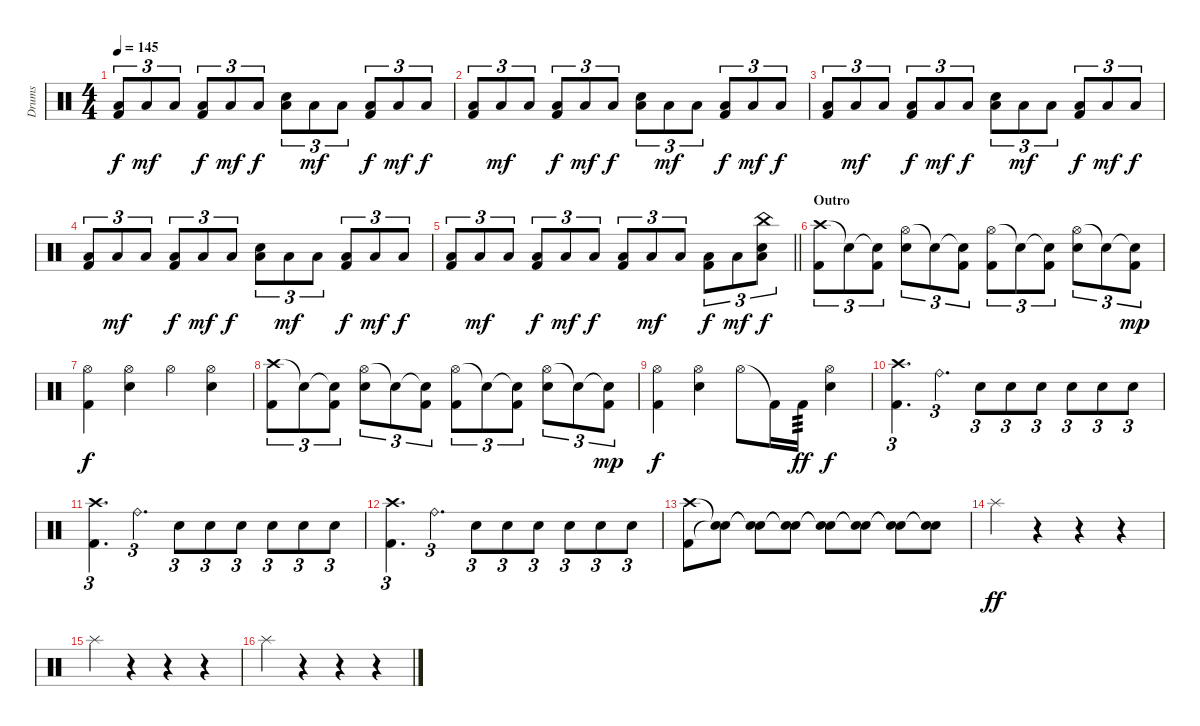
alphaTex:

\track ("Drums" "Drums") {instrument percussion}
\staff {score}
\articulation defaults
\ts (4 4)
\tempo 145
\clef neutral
\ks c
("Kick (hit) 2" "Low Floor Tom (hit)").8{tu (3 2) dy f} "Low Floor Tom (hit)".8{tu (3 2) dy mf} "Low Floor Tom (hit)".8{tu (3 2)} ("Kick (hit) 2" "Low Floor Tom (hit)").8{tu (3 2) dy f} "Low Floor Tom (hit)".8{tu (3 2) dy mf} "Low Floor Tom (hit)".8{tu (3 2) dy f} ("Snare (hit) 2" "Low Floor Tom (hit)").8{tu (3 2)} "Low Floor Tom (hit)".8{tu (3 2) dy mf} "Low Floor Tom (hit)".8{tu (3 2)} ("Kick (hit) 2" "Low Floor Tom (hit)").8{tu (3 2) dy f} "Low Floor Tom (hit)".8{tu (3 2) dy mf} "Low Floor Tom (hit)".8{tu (3 2) dy f} |
("Kick (hit) 2" "Low Floor Tom (hit)").8{tu (3 2)} "Low Floor Tom (hit)".8{tu (3 2) dy mf} "Low Floor Tom (hit)".8{tu (3 2)} ("Kick (hit) 2" "Low Floor Tom (hit)").8{tu (3 2) dy f} "Low Floor Tom (hit)".8{tu (3 2) dy mf} "Low Floor Tom (hit)".8{tu (3 2) dy f} ("Snare (hit) 2" "Low Floor Tom (hit)").8{tu (3 2)} "Low Floor Tom (hit)".8{tu (3 2) dy mf} "Low Floor Tom (hit)".8{tu (3 2)} ("Kick (hit) 2" "Low Floor Tom (hit)").8{tu (3 2) dy f} "Low Floor Tom (hit)".8{tu (3 2) dy mf} "Low Floor Tom (hit)".8{tu (3 2) dy f} |
("Kick (hit) 2" "Low Floor Tom (hit)").8{tu (3 2)} "Low Floor Tom (hit)".8{tu (3 2) dy mf} "Low Floor Tom (hit)".8{tu (3 2)} ("Kick (hit) 2" "Low Floor Tom (hit)").8{tu (3 2) dy f} "Low Floor Tom (hit)".8{tu (3 2) dy mf} "Low Floor Tom (hit)".8{tu (3 2) dy f} ("Snare (hit) 2" "Low Floor Tom (hit)").8{tu (3 2)} "Low Floor Tom (hit)".8{tu (3 2) dy mf} "Low Floor Tom (hit)".8{tu (3 2)} ("Kick (hit) 2" "Low Floor Tom (hit)").8{tu (3 2) dy f} "Low Floor Tom (hit)".8{tu (3 2) dy mf} "Low Floor Tom (hit)".8{tu (3 2) dy f} |
("Kick (hit) 2" "Low Floor Tom (hit)").8{tu (3 2)} "Low Floor Tom (hit)".8{tu (3 2) dy mf} "Low Floor Tom (hit)".8{tu (3 2)} ("Kick (hit) 2" "Low Floor Tom (hit)").8{tu (3 2) dy f} "Low Floor Tom (hit)".8{tu (3 2) dy mf} "Low Floor Tom (hit)".8{tu (3 2) dy f} ("Snare (hit) 2" "Low Floor Tom (hit)").8{tu (3 2)} "Low Floor Tom (hit)".8{tu (3 2) dy mf} "Low Floor Tom (hit)".8{tu (3 2)} ("Kick (hit) 2" "Low Floor Tom (hit)").8{tu (3 2) dy f} "Low Floor Tom (hit)".8{tu (3 2) dy mf} "Low Floor Tom (hit)".8{tu (3 2) dy f} |
\barLineRight lightlight
("Kick (hit) 2" "Low Floor Tom (hit)").8{tu (3 2)} "Low Floor Tom (hit)".8{tu (3 2) dy mf} "Low Floor Tom (hit)".8{tu (3 2)} ("Kick (hit) 2" "Low Floor Tom (hit)").8{tu (3 2) dy f} "Low Floor Tom (hit)".8{tu (3 2) dy mf} "Low Floor Tom (hit)".8{tu (3 2) dy f} ("Kick (hit) 2" "Low Floor Tom (hit)").8{tu (3 2)} "Low Floor Tom (hit)".8{tu (3 2) dy mf} "Low Floor Tom (hit)".8{tu (3 2)} ("Kick (hit) 2" "Low Floor Tom (hit)").8{tu (3 2) dy f} "Low Floor Tom (hit)".8{tu (3 2) dy mf} ("Electric Snare (hit)" "Low Floor Tom (hit)" "China (hit)").8{tu (3 2) dy f} |
\section ("" "Outro")
("Crash high (hit)" "Kick (hit) 2").8{tu (3 2)} "Snare (hit)"{t}.8{tu (3 2)} ("Snare (hit)"{t} "Kick (hit) 2").8{tu (3 2)} ("Hi-Hat (open)" "Snare (hit) 2").8{tu (3 2)} "Snare (hit)"{t}.8{tu (3 2)} ("Snare (hit)"{t} "Kick (hit) 2").8{tu (3 2)} ("Hi-Hat (open)" "Kick (hit) 2").8{tu (3 2)} "Snare (hit)"{t}.8{tu (3 2)} ("Snare (hit)"{t} "Kick (hit) 2").8{tu (3 2)} ("Hi-Hat (open)" "Snare (hit) 2").8{tu (3 2)} "Snare (hit)"{t}.8{tu (3 2)} ("Snare (hit)"{t} "Kick (hit) 2").8{tu (3 2) dy mp} |
("Hi-Hat (open)" "Kick (hit) 2").4{dy f} ("Hi-Hat (open)" "Snare (hit) 2").4 "Hi-Hat (open)".4 ("Hi-Hat (open)" "Snare (hit) 2").4 |
("Crash high (hit)" "Kick (hit) 2").8{tu (3 2)} "Snare (hit)"{t}.8{tu (3 2)} ("Snare (hit)"{t} "Kick (hit) 2").8{tu (3 2)} ("Hi-Hat (open)" "Snare (hit) 2").8{tu (3 2)} "Snare (hit)"{t}.8{tu (3 2)} ("Snare (hit)"{t} "Kick (hit) 2").8{tu (3 2)} ("Hi-Hat (open)" "Kick (hit) 2").8{tu (3 2)} "Snare (hit)"{t}.8{tu (3 2)} ("Snare (hit)"{t} "Kick (hit) 2").8{tu (3 2)} ("Hi-Hat (open)" "Snare (hit) 2").8{tu (3 2)} "Snare (hit)"{t}.8{tu (3 2)} ("Snare (hit)"{t} "Kick (hit) 2").8{tu (3 2) dy mp} |
("Hi-Hat (open)" "Kick (hit) 2").4{dy f} ("Hi-Hat (open)" "Snare (hit) 2").4 "Hi-Hat (open)".8 "Kick (hit) 2"{t}.16 "Kick (hit) 2".16{tp 3 dy ff} ("Hi-Hat (open)" "Snare (hit) 2").4{dy f} |
("Crash high (hit)" "Kick (hit) 2").4{d tu (3 2)} "Ride (bell)".4{d tu (3 2)} "Electric Snare (hit)".8{tu (3 2)} "Electric Snare (hit)".8{tu (3 2)} "Electric Snare (hit)".8{tu (3 2)} "Electric Snare (hit)".8{tu (3 2)} "Electric Snare (hit)".8{tu (3 2)} "Electric Snare (hit)".8{tu (3 2)} |
("Crash high (hit)" "Kick (hit) 2").4{d tu (3 2)} "Ride (bell)".4{d tu (3 2)} "Electric Snare (hit)".8{tu (3 2)} "Electric Snare (hit)".8{tu (3 2)} "Electric Snare (hit)".8{tu (3 2)} "Electric Snare (hit)".8{tu (3 2)} "Electric Snare (hit)".8{tu (3 2)} "Electric Snare (hit)".8{tu (3 2)} |
("Crash high (hit)" "Kick (hit) 2").4{d tu (3 2)} "Ride (bell)".4{d tu (3 2)} "Electric Snare (hit)".8{tu (3 2)} "Electric Snare (hit)".8{tu (3 2)} "Electric Snare (hit)".8{tu (3 2)} "Electric Snare (hit)".8{tu (3 2)} "Electric Snare (hit)".8{tu (3 2)} "Electric Snare (hit)".8{tu (3 2)} |
("Kick (hit) 2" "Crash high (hit)").8 ("Snare (hit)"{t} "Snare (hit)"{t}).8 ("Snare (hit)"{t} "Snare (hit)"{t}).8 ("Snare (hit)"{t} "Snare (hit)"{t}).8 ("Snare (hit)"{t} "Snare (hit)"{t}).8 ("Snare (hit)"{t} "Snare (hit)"{t}).8 ("Snare (hit)"{t} "Snare (hit)"{t}).8 ("Snare (hit)"{t} "Snare (hit)"{t}).8 |
"Splash (hit)".4{dy ff} r.4 r.4 r.4 |
"Splash (hit)".4 r.4 r.4 r.4 |
"Splash (hit)".4{volume 0} r.4 r.4 r.4
